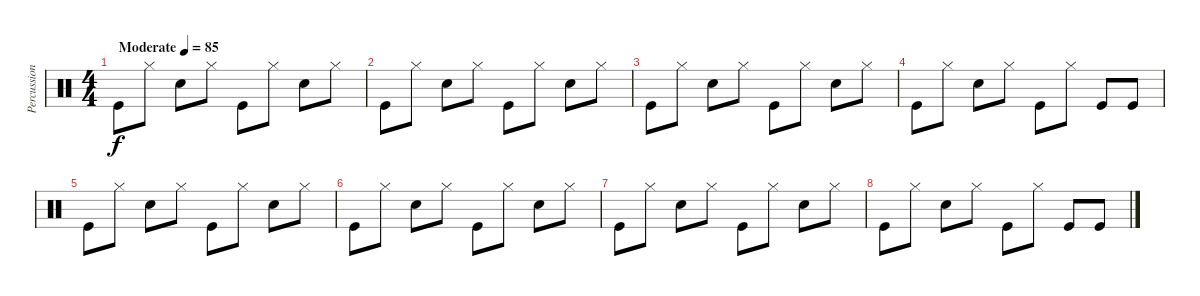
\track ("Percussion" "Percussion") {instrument percussion}
\staff {score}
\articulation defaults
\ts (4 4)
\tempo (85 "Moderate")
\clef neutral
\ks c "Kick (hit)".8{dy f} "Hi-Hat (closed)".8 "Electric Snare (hit)".8 "Hi-Hat (closed)".8 "Kick (hit)".8 "Hi-Hat (closed)".8 "Electric Snare (hit)".8 "Hi-Hat (closed)".8
|
"Kick (hit)".8 "Hi-Hat (closed)".8 "Electric Snare (hit)".8 "Hi-Hat (closed)".8 "Kick (hit)".8 "Hi-Hat (closed)".8 "Electric Snare (hit)".8 "Hi-Hat (closed)".8 |
"Kick (hit)".8 "Hi-Hat (closed)".8 "Electric Snare (hit)".8 "Hi-Hat (closed)".8 "Kick (hit)".8 "Hi-Hat (closed)".8 "Electric Snare (hit)".8 "Hi-Hat (closed)".8 |
"Kick (hit)".8 "Hi-Hat (closed)".8 "Electric Snare (hit)".8 "Hi-Hat (closed)".8 "Kick (hit)".8 "Hi-Hat (closed)".8 "Kick (hit)".8 "Kick (hit)".8 |
"Kick (hit)".8 "Hi-Hat (closed)".8 "Electric Snare (hit)".8 "Hi-Hat (closed)".8 "Kick (hit)".8 "Hi-Hat (closed)".8 "Electric Snare (hit)".8 "Hi-Hat (closed)".8 |
"Kick (hit)".8 "Hi-Hat (closed)".8 "Electric Snare (hit)".8 "Hi-Hat (closed)".8 "Kick (hit)".8 "Hi-Hat (closed)".8 "Electric Snare (hit)".8 "Hi-Hat (closed)".8 |
"Kick (hit)".8 "Hi-Hat (closed)".8 "Electric Snare (hit)".8 "Hi-Hat (closed)".8 "Kick (hit)".8 "Hi-Hat (closed)".8 "Electric Snare (hit)".8 "Hi-Hat (closed)".8 |
"Kick (hit)".8 "Hi-Hat (closed)".8 "Electric Snare (hit)".8 "Hi-Hat (closed)".8 "Kick (hit)".8 "Hi-Hat (closed)".8 "Kick (hit)".8 "Kick (hit)".8
